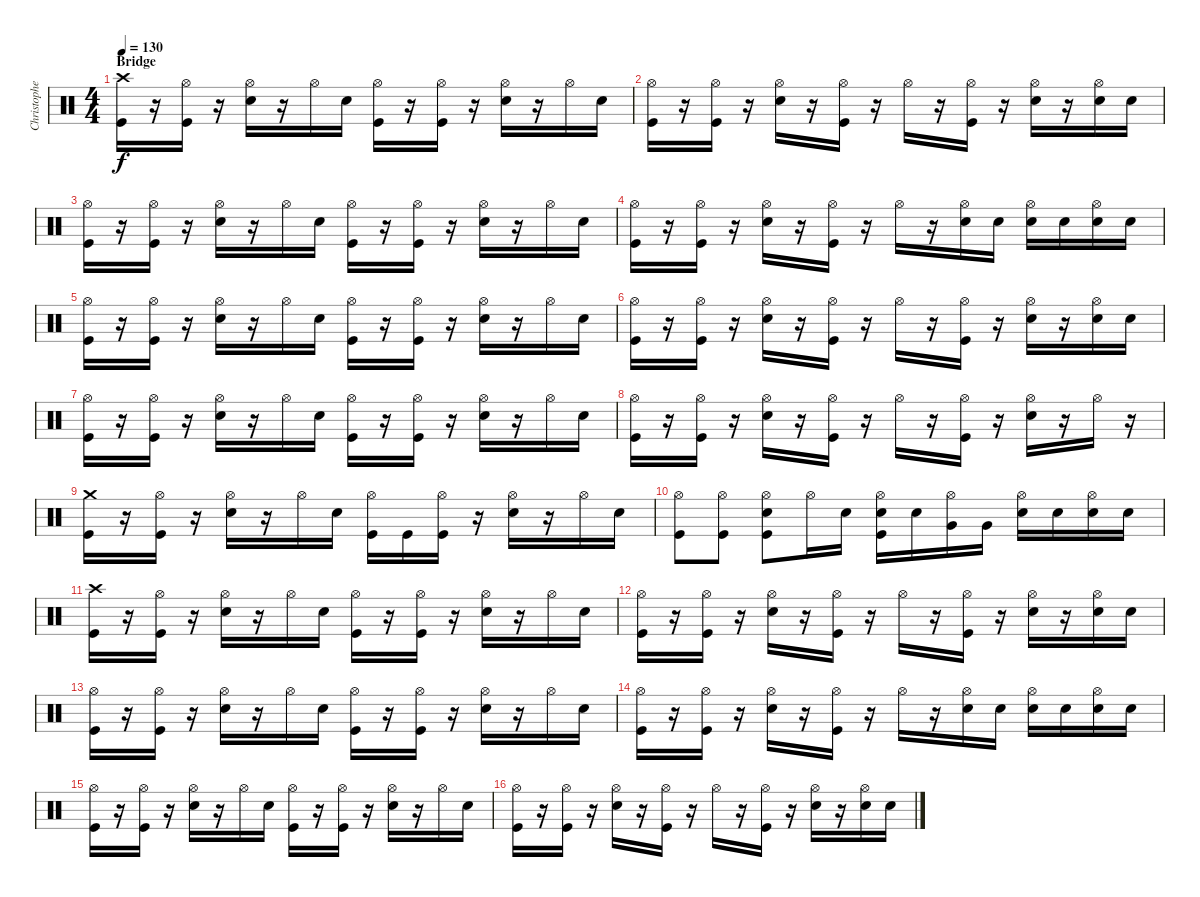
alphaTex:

\track ("Christopher - Drums" "Christophe") {instrument percussion}
\staff {score}
\articulation defaults
\ts (4 4)
\section ("" "Bridge")
\tempo 130
\clef neutral
\ks c
("Crash high (hit)" "Kick (hit)").16{dy f} r.16 ("Hi-Hat (open)" "Kick (hit)").16 r.16 ("Hi-Hat (open)" "Snare (hit) 2").16 r.16 "Hi-Hat (open)".16 "Snare (hit) 2".16 ("Hi-Hat (open)" "Kick (hit)").16 r.16 ("Hi-Hat (open)" "Kick (hit)").16 r.16 ("Hi-Hat (open)" "Snare (hit) 2").16 r.16 "Hi-Hat (open)".16 "Snare (hit) 2".16 |
("Hi-Hat (open)" "Kick (hit)").16 r.16 ("Hi-Hat (open)" "Kick (hit)").16 r.16 ("Hi-Hat (open)" "Snare (hit) 2").16 r.16 ("Hi-Hat (open)" "Kick (hit)").16 r.16 "Hi-Hat (open)".16 r.16 ("Hi-Hat (open)" "Kick (hit)").16 r.16 ("Hi-Hat (open)" "Snare (hit) 2").16 r.16 ("Hi-Hat (open)" "Snare (hit) 2").16 "Snare (hit) 2".16 |
("Hi-Hat (open)" "Kick (hit)").16 r.16 ("Hi-Hat (open)" "Kick (hit)").16 r.16 ("Hi-Hat (open)" "Snare (hit) 2").16 r.16 "Hi-Hat (open)".16 "Snare (hit) 2".16 ("Hi-Hat (open)" "Kick (hit)").16 r.16 ("Hi-Hat (open)" "Kick (hit)").16 r.16 ("Hi-Hat (open)" "Snare (hit) 2").16 r.16 "Hi-Hat (open)".16 "Snare (hit) 2".16 |
("Hi-Hat (open)" "Kick (hit)").16 r.16 ("Hi-Hat (open)" "Kick (hit)").16 r.16 ("Hi-Hat (open)" "Snare (hit) 2").16 r.16 ("Hi-Hat (open)" "Kick (hit)").16 r.16 "Hi-Hat (open)".16 r.16 ("Hi-Hat (open)" "Snare (hit) 2").16 "Snare (hit) 2".16 ("Hi-Hat (open)" "Snare (hit) 2").16 "Snare (hit) 2".16 ("Hi-Hat (open)" "Snare (hit) 2").16 "Snare (hit) 2".16 |
("Hi-Hat (open)" "Kick (hit)").16 r.16 ("Hi-Hat (open)" "Kick (hit)").16 r.16 ("Hi-Hat (open)" "Snare (hit) 2").16 r.16 "Hi-Hat (open)".16 "Snare (hit) 2".16 ("Hi-Hat (open)" "Kick (hit)").16 r.16 ("Hi-Hat (open)" "Kick (hit)").16 r.16 ("Hi-Hat (open)" "Snare (hit) 2").16 r.16 "Hi-Hat (open)".16 "Snare (hit) 2".16 |
("Hi-Hat (open)" "Kick (hit)").16 r.16 ("Hi-Hat (open)" "Kick (hit)").16 r.16 ("Hi-Hat (open)" "Snare (hit) 2").16 r.16 ("Hi-Hat (open)" "Kick (hit)").16 r.16 "Hi-Hat (open)".16 r.16 ("Hi-Hat (open)" "Kick (hit)").16 r.16 ("Hi-Hat (open)" "Snare (hit) 2").16 r.16 ("Hi-Hat (open)" "Snare (hit) 2").16 "Snare (hit) 2".16 |
("Hi-Hat (open)" "Kick (hit)").16 r.16 ("Hi-Hat (open)" "Kick (hit)").16 r.16 ("Hi-Hat (open)" "Snare (hit) 2").16 r.16 "Hi-Hat (open)".16 "Snare (hit) 2".16 ("Hi-Hat (open)" "Kick (hit)").16 r.16 ("Hi-Hat (open)" "Kick (hit)").16 r.16 ("Hi-Hat (open)" "Snare (hit) 2").16 r.16 "Hi-Hat (open)".16 "Snare (hit) 2".16 |
("Hi-Hat (open)" "Kick (hit)").16 r.16 ("Hi-Hat (open)" "Kick (hit)").16 r.16 ("Hi-Hat (open)" "Snare (hit) 2").16 r.16 ("Hi-Hat (open)" "Kick (hit)").16 r.16 "Hi-Hat (open)".16 r.16 ("Hi-Hat (open)" "Kick (hit)").16 r.16 ("Hi-Hat (open)" "Snare (hit) 2").16 r.16 "Hi-Hat (open)".16 r.16 |
("Crash medium (hit)" "Kick (hit)").16 r.16 ("Hi-Hat (open)" "Kick (hit)").16 r.16 ("Hi-Hat (open)" "Snare (hit) 2").16 r.16 "Hi-Hat (open)".16 "Snare (hit) 2".16 ("Hi-Hat (open)" "Kick (hit)").16 "Kick (hit)".16 ("Hi-Hat (open)" "Kick (hit)").16 r.16 ("Hi-Hat (open)" "Snare (hit) 2").16 r.16 "Hi-Hat (open)".16 "Snare (hit) 2".16 |
("Hi-Hat (open)" "Kick (hit)").8 ("Hi-Hat (open)" "Kick (hit)").8 ("Hi-Hat (open)" "Snare (hit) 2" "Kick (hit)").8 "Hi-Hat (open)".16 "Snare (hit) 2".16 ("Hi-Hat (open)" "Snare (hit) 2" "Kick (hit)").16 "Snare (hit) 2".16 ("Hi-Hat (open)" "Very Low Tom (hit)").16 "Very Low Tom (hit)".16 ("Hi-Hat (open)" "Snare (hit) 2").16 "Snare (hit) 2".16 ("Hi-Hat (open)" "Snare (hit) 2").16 "Snare (hit) 2".16 |
("Crash high (hit)" "Kick (hit)").16 r.16 ("Hi-Hat (open)" "Kick (hit)").16 r.16 ("Hi-Hat (open)" "Snare (hit) 2").16 r.16 "Hi-Hat (open)".16 "Snare (hit) 2".16 ("Hi-Hat (open)" "Kick (hit)").16 r.16 ("Hi-Hat (open)" "Kick (hit)").16 r.16 ("Hi-Hat (open)" "Snare (hit) 2").16 r.16 "Hi-Hat (open)".16 "Snare (hit) 2".16 |
("Hi-Hat (open)" "Kick (hit)").16 r.16 ("Hi-Hat (open)" "Kick (hit)").16 r.16 ("Hi-Hat (open)" "Snare (hit) 2").16 r.16 ("Hi-Hat (open)" "Kick (hit)").16 r.16 "Hi-Hat (open)".16 r.16 ("Hi-Hat (open)" "Kick (hit)").16 r.16 ("Hi-Hat (open)" "Snare (hit) 2").16 r.16 ("Hi-Hat (open)" "Snare (hit) 2").16 "Snare (hit) 2".16 |
("Hi-Hat (open)" "Kick (hit)").16 r.16 ("Hi-Hat (open)" "Kick (hit)").16 r.16 ("Hi-Hat (open)" "Snare (hit) 2").16 r.16 "Hi-Hat (open)".16 "Snare (hit) 2".16 ("Hi-Hat (open)" "Kick (hit)").16 r.16 ("Hi-Hat (open)" "Kick (hit)").16 r.16 ("Hi-Hat (open)" "Snare (hit) 2").16 r.16 "Hi-Hat (open)".16 "Snare (hit) 2".16 |
("Hi-Hat (open)" "Kick (hit)").16 r.16 ("Hi-Hat (open)" "Kick (hit)").16 r.16 ("Hi-Hat (open)" "Snare (hit) 2").16 r.16 ("Hi-Hat (open)" "Kick (hit)").16 r.16 "Hi-Hat (open)".16 r.16 ("Hi-Hat (open)" "Snare (hit) 2").16 "Snare (hit) 2".16 ("Hi-Hat (open)" "Snare (hit) 2").16 "Snare (hit) 2".16 ("Hi-Hat (open)" "Snare (hit) 2").16 "Snare (hit) 2".16 |
("Hi-Hat (open)" "Kick (hit)").16 r.16 ("Hi-Hat (open)" "Kick (hit)").16 r.16 ("Hi-Hat (open)" "Snare (hit) 2").16 r.16 "Hi-Hat (open)".16 "Snare (hit) 2".16 ("Hi-Hat (open)" "Kick (hit)").16 r.16 ("Hi-Hat (open)" "Kick (hit)").16 r.16 ("Hi-Hat (open)" "Snare (hit) 2").16 r.16 "Hi-Hat (open)".16 "Snare (hit) 2".16 |
("Hi-Hat (open)" "Kick (hit)").16 r.16 ("Hi-Hat (open)" "Kick (hit)").16 r.16 ("Hi-Hat (open)" "Snare (hit) 2").16 r.16 ("Hi-Hat (open)" "Kick (hit)").16 r.16 "Hi-Hat (open)".16 r.16 ("Hi-Hat (open)" "Kick (hit)").16 r.16 ("Hi-Hat (open)" "Snare (hit) 2").16 r.16 ("Hi-Hat (open)" "Snare (hit) 2").16 "Snare (hit) 2".16
